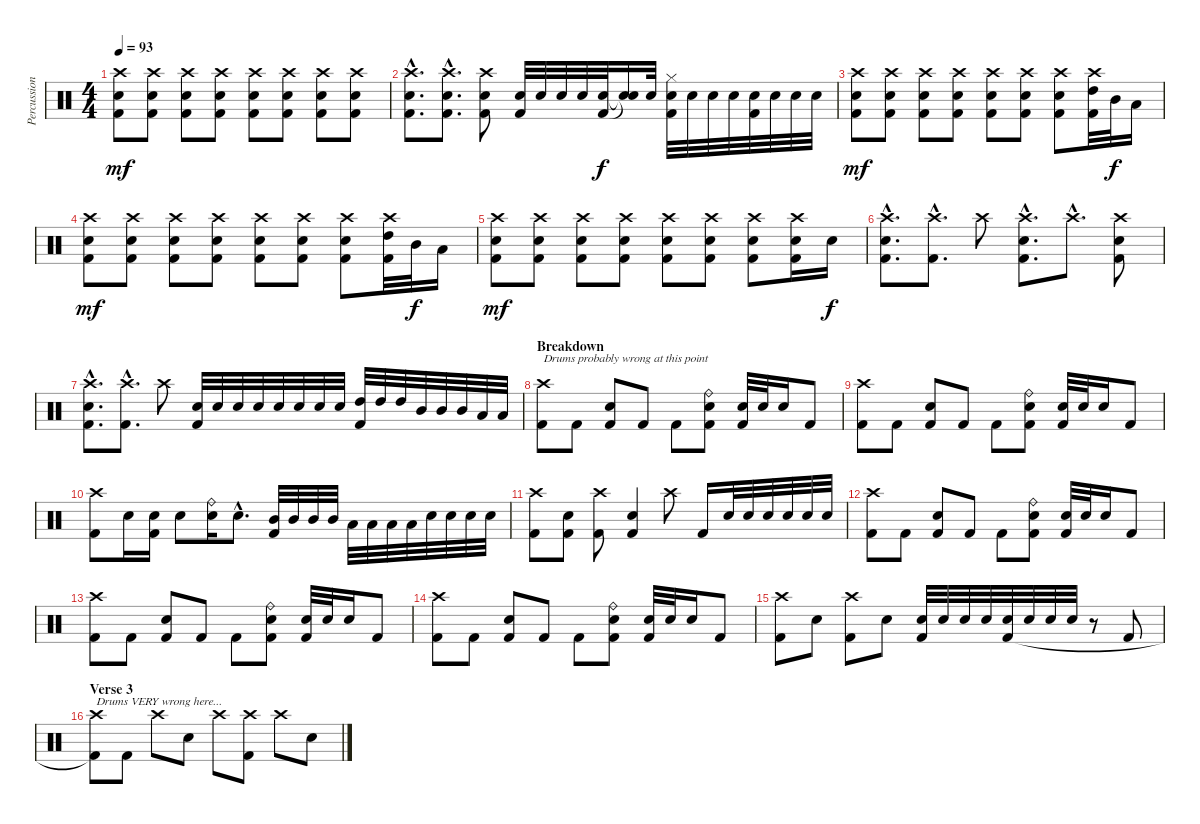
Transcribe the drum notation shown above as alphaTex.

\track ("Percussion" "Percussion") {instrument percussion}
\staff {score}
\articulation defaults
\ts (4 4)
\tempo 93
\clef neutral
\ks c
("Crash high (hit)" "Snare (hit) 2" "Kick (hit) 2").8{dy mf} ("Crash high (hit)" "Snare (hit) 2" "Kick (hit) 2").8 ("Crash high (hit)" "Snare (hit) 2" "Kick (hit) 2").8 ("Crash high (hit)" "Snare (hit) 2" "Kick (hit) 2").8 ("Crash high (hit)" "Snare (hit) 2" "Kick (hit) 2").8 ("Crash high (hit)" "Snare (hit) 2" "Kick (hit) 2").8 ("Crash high (hit)" "Snare (hit) 2" "Kick (hit) 2").8 ("Crash high (hit)" "Snare (hit) 2" "Kick (hit) 2").8 |
("Crash high (hit)"{hac} "Snare (hit) 2"{hac} "Kick (hit) 2"{hac}).8{d} ("Crash high (hit)"{hac} "Snare (hit) 2"{hac} "Kick (hit) 2"{hac}).8{d} ("Crash high (hit)" "Snare (hit) 2" "Kick (hit) 2").8 ("Snare (hit) 2" "Kick (hit) 2").32 "Snare (hit) 2".32 "Snare (hit) 2".32 "Snare (hit) 2".32 ("Snare (hit) 2" "Kick (hit) 2").32{dy f} ("Snare (hit)"{t} "Snare (hit)"{t}).16 "Snare (hit) 2".32 ("Hi-Hat (closed)" "Snare (hit) 2" "Kick (hit) 2").32 "Snare (hit) 2".32 "Snare (hit) 2".32 "Snare (hit) 2".32 ("Snare (hit) 2" "Kick (hit) 2").32 "Snare (hit) 2".32 "Snare (hit) 2".32 "Snare (hit) 2".32 |
("Crash high (hit)" "Snare (hit) 2" "Kick (hit) 2").8{dy mf} ("Crash high (hit)" "Snare (hit) 2" "Kick (hit) 2").8 ("Crash high (hit)" "Snare (hit) 2" "Kick (hit) 2").8 ("Crash high (hit)" "Snare (hit) 2" "Kick (hit) 2").8 ("Crash high (hit)" "Snare (hit) 2" "Kick (hit) 2").8 ("Crash high (hit)" "Snare (hit) 2" "Kick (hit) 2").8 ("Crash high (hit)" "Snare (hit) 2" "Kick (hit) 2").8 ("Crash high (hit)" "High Tom (hit)" "Kick (hit) 2").32 "Mid Tom (hit)".32{dy f} "Low Tom (hit)".16 |
("Crash high (hit)" "Snare (hit) 2" "Kick (hit) 2").8{dy mf} ("Crash high (hit)" "Snare (hit) 2" "Kick (hit) 2").8 ("Crash high (hit)" "Snare (hit) 2" "Kick (hit) 2").8 ("Crash high (hit)" "Snare (hit) 2" "Kick (hit) 2").8 ("Crash high (hit)" "Snare (hit) 2" "Kick (hit) 2").8 ("Crash high (hit)" "Snare (hit) 2" "Kick (hit) 2").8 ("Crash high (hit)" "Snare (hit) 2" "Kick (hit) 2").8 ("Crash high (hit)" "High Tom (hit)" "Kick (hit) 2").32 "Mid Tom (hit)".32{dy f} "Low Tom (hit)".16 |
("Crash high (hit)" "Snare (hit) 2" "Kick (hit) 2").8{dy mf} ("Crash high (hit)" "Snare (hit) 2" "Kick (hit) 2").8 ("Crash high (hit)" "Snare (hit) 2" "Kick (hit) 2").8 ("Crash high (hit)" "Snare (hit) 2" "Kick (hit) 2").8 ("Crash high (hit)" "Snare (hit) 2" "Kick (hit) 2").8 ("Crash high (hit)" "Snare (hit) 2" "Kick (hit) 2").8 ("Crash high (hit)" "Snare (hit) 2" "Kick (hit) 2").8 ("Crash high (hit)" "Snare (hit) 2" "Kick (hit) 2").16 "Snare (hit) 2".16{dy f} |
("Crash high (hit)"{hac} "Snare (hit) 2"{hac} "Kick (hit) 2"{hac}).8{d} ("Crash high (hit)"{hac} "Kick (hit) 2"{hac}).8{d} "Crash high (hit)".8 ("Crash high (hit)"{hac} "Snare (hit) 2"{hac} "Kick (hit) 2"{hac}).8{d} "Crash high (hit)"{hac}.8{d} ("Crash high (hit)" "Snare (hit) 2" "Kick (hit) 2").8 |
("Crash high (hit)"{hac} "Snare (hit) 2"{hac} "Kick (hit) 2"{hac}).8{d} ("Crash high (hit)"{hac} "Kick (hit) 2"{hac}).8{d} "Crash high (hit)".8 ("Snare (hit) 2" "Kick (hit) 2").32 "Snare (hit) 2".32 "Snare (hit) 2".32 "Snare (hit) 2".32 "Snare (hit) 2".32 "Snare (hit) 2".32 "Snare (hit) 2".32 "Snare (hit) 2".32 ("High Tom (hit)" "Kick (hit) 2").32 "High Tom (hit)".32 "High Tom (hit)".32 "Mid Tom (hit)".32 "Mid Tom (hit)".32 "Mid Tom (hit)".32 "Low Tom (hit)".32 "Low Tom (hit)".32 |
\section ("" "Breakdown")
("Crash high (hit)" "Kick (hit) 2").8{txt "Drums probably wrong at this point"} "Kick (hit) 2".8 ("Snare (hit) 2" "Kick (hit) 2").8 "Kick (hit) 2".8 "Kick (hit) 2".8 ("Ride (bell)" "Snare (hit) 2" "Kick (hit) 2").8 ("Snare (hit) 2" "Kick (hit) 2").32 "Snare (hit) 2".32 "Snare (hit) 2".16 "Kick (hit) 2".8 |
("Crash high (hit)" "Kick (hit) 2").8 "Kick (hit) 2".8 ("Snare (hit) 2" "Kick (hit) 2").8 "Kick (hit) 2".8 "Kick (hit) 2".8 ("Ride (bell)" "Snare (hit) 2" "Kick (hit) 2").8 ("Snare (hit) 2" "Kick (hit) 2").32 "Snare (hit) 2".32 "Snare (hit) 2".16 "Kick (hit) 2".8 |
("Crash high (hit)" "Kick (hit) 2").8 "Snare (hit) 2".16 ("Snare (hit) 2" "Kick (hit) 2").16 "Snare (hit) 2".8 ("Ride (bell)" "Snare (hit) 2").16 "Snare (hit) 2"{hac}.8{d} ("Mid Tom (hit)" "Kick (hit) 2").32 "Mid Tom (hit)".32 "Mid Tom (hit)".32 "Mid Tom (hit)".32 "Low Tom (hit)".32 "Low Tom (hit)".32 "Low Tom (hit)".32 "Low Tom (hit)".32 "Snare (hit) 2".32 "Snare (hit) 2".32 "Snare (hit) 2".32 "Snare (hit) 2".32 |
("Crash high (hit)" "Kick (hit) 2").8 ("Snare (hit) 2" "Kick (hit) 2").8 ("Crash high (hit)" "Kick (hit) 2").8 ("Snare (hit) 2" "Kick (hit) 2").4 "Crash high (hit)".8 "Kick (hit) 2".16 "Snare (hit) 2".32 "Snare (hit) 2".32 "Snare (hit) 2".32 "Snare (hit) 2".32 "Snare (hit) 2".32 "Snare (hit) 2".32 |
("Crash high (hit)" "Kick (hit) 2").8 "Kick (hit) 2".8 ("Snare (hit) 2" "Kick (hit) 2").8 "Kick (hit) 2".8 "Kick (hit) 2".8 ("Ride (bell)" "Snare (hit) 2" "Kick (hit) 2").8 ("Snare (hit) 2" "Kick (hit) 2").32 "Snare (hit) 2".32 "Snare (hit) 2".16 "Kick (hit) 2".8 |
("Crash high (hit)" "Kick (hit) 2").8 "Kick (hit) 2".8 ("Snare (hit) 2" "Kick (hit) 2").8 "Kick (hit) 2".8 "Kick (hit) 2".8 ("Ride (bell)" "Snare (hit) 2" "Kick (hit) 2").8 ("Snare (hit) 2" "Kick (hit) 2").32 "Snare (hit) 2".32 "Snare (hit) 2".16 "Kick (hit) 2".8 |
("Crash high (hit)" "Kick (hit) 2").8 "Kick (hit) 2".8 ("Snare (hit) 2" "Kick (hit) 2").8 "Kick (hit) 2".8 "Kick (hit) 2".8 ("Ride (bell)" "Snare (hit) 2" "Kick (hit) 2").8 ("Snare (hit) 2" "Kick (hit) 2").32 "Snare (hit) 2".32 "Snare (hit) 2".16 "Kick (hit) 2".8 |
("Crash high (hit)" "Kick (hit) 2").8 "Snare (hit) 2".8 ("Crash high (hit)" "Kick (hit) 2").8 "Snare (hit) 2".8 ("Snare (hit) 2" "Kick (hit) 2").32 "Snare (hit) 2".32 "Snare (hit) 2".32 "Snare (hit) 2".32 ("Snare (hit) 2" "Kick (hit) 2").32 "Snare (hit) 2".32 "Snare (hit) 2".32 "Snare (hit) 2".32 r.8 "Kick (hit) 2".8 |
\section ("" "Verse 3")
("Crash high (hit)" "Kick (hit) 2"{t}).8{txt "Drums VERY wrong here..."} "Kick (hit) 2".8 "Crash high (hit)".8 "Snare (hit) 2".8 "Crash high (hit)".8 ("Crash high (hit)" "Kick (hit) 2").8 "Crash high (hit)".8 "Snare (hit) 2".8
